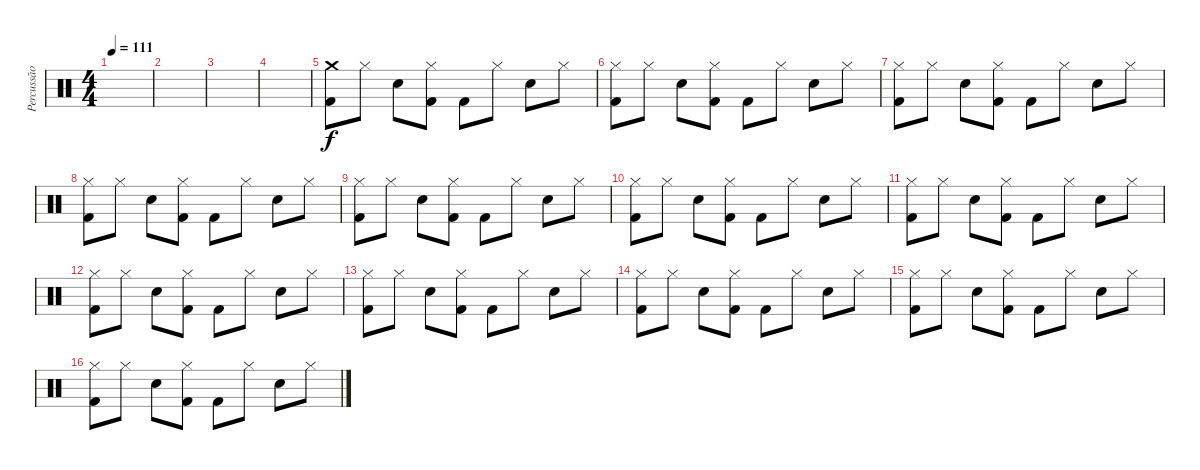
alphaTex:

\track ("Percussão" "Percussão") {instrument percussion}
\staff {score}
\articulation defaults
\ts (4 4)
\tempo 111
\clef neutral
\ks c
|
|
|
|
("Crash medium (hit)" "Kick (hit) 2").8 "Hi-Hat (closed)".8 "Electric Snare (hit)".8 ("Hi-Hat (closed)" "Kick (hit) 2").8 "Kick (hit) 2".8 "Hi-Hat (closed)".8 "Electric Snare (hit)".8 "Hi-Hat (closed)".8 |
("Hi-Hat (closed)" "Kick (hit) 2").8 "Hi-Hat (closed)".8 "Electric Snare (hit)".8 ("Hi-Hat (closed)" "Kick (hit) 2").8 "Kick (hit) 2".8 "Hi-Hat (closed)".8 "Electric Snare (hit)".8 "Hi-Hat (closed)".8 |
("Hi-Hat (closed)" "Kick (hit) 2").8 "Hi-Hat (closed)".8 "Electric Snare (hit)".8 ("Hi-Hat (closed)" "Kick (hit) 2").8 "Kick (hit) 2".8 "Hi-Hat (closed)".8 "Electric Snare (hit)".8 "Hi-Hat (closed)".8 |
("Hi-Hat (closed)" "Kick (hit) 2").8 "Hi-Hat (closed)".8 "Electric Snare (hit)".8 ("Hi-Hat (closed)" "Kick (hit) 2").8 "Kick (hit) 2".8 "Hi-Hat (closed)".8 "Electric Snare (hit)".8 "Hi-Hat (closed)".8 |
("Hi-Hat (closed)" "Kick (hit) 2").8 "Hi-Hat (closed)".8 "Electric Snare (hit)".8 ("Hi-Hat (closed)" "Kick (hit) 2").8 "Kick (hit) 2".8 "Hi-Hat (closed)".8 "Electric Snare (hit)".8 "Hi-Hat (closed)".8 |
("Hi-Hat (closed)" "Kick (hit) 2").8 "Hi-Hat (closed)".8 "Electric Snare (hit)".8 ("Hi-Hat (closed)" "Kick (hit) 2").8 "Kick (hit) 2".8 "Hi-Hat (closed)".8 "Electric Snare (hit)".8 "Hi-Hat (closed)".8 |
("Hi-Hat (closed)" "Kick (hit) 2").8 "Hi-Hat (closed)".8 "Electric Snare (hit)".8 ("Hi-Hat (closed)" "Kick (hit) 2").8 "Kick (hit) 2".8 "Hi-Hat (closed)".8 "Electric Snare (hit)".8 "Hi-Hat (closed)".8 |
("Hi-Hat (closed)" "Kick (hit) 2").8 "Hi-Hat (closed)".8 "Electric Snare (hit)".8 ("Hi-Hat (closed)" "Kick (hit) 2").8 "Kick (hit) 2".8 "Hi-Hat (closed)".8 "Electric Snare (hit)".8 "Hi-Hat (closed)".8 |
("Hi-Hat (closed)" "Kick (hit) 2").8 "Hi-Hat (closed)".8 "Electric Snare (hit)".8 ("Hi-Hat (closed)" "Kick (hit) 2").8 "Kick (hit) 2".8 "Hi-Hat (closed)".8 "Electric Snare (hit)".8 "Hi-Hat (closed)".8 |
("Hi-Hat (closed)" "Kick (hit) 2").8 "Hi-Hat (closed)".8 "Electric Snare (hit)".8 ("Hi-Hat (closed)" "Kick (hit) 2").8 "Kick (hit) 2".8 "Hi-Hat (closed)".8 "Electric Snare (hit)".8 "Hi-Hat (closed)".8 |
("Hi-Hat (closed)" "Kick (hit) 2").8 "Hi-Hat (closed)".8 "Electric Snare (hit)".8 ("Hi-Hat (closed)" "Kick (hit) 2").8 "Kick (hit) 2".8 "Hi-Hat (closed)".8 "Electric Snare (hit)".8 "Hi-Hat (closed)".8 |
("Hi-Hat (closed)" "Kick (hit) 2").8 "Hi-Hat (closed)".8 "Electric Snare (hit)".8 ("Hi-Hat (closed)" "Kick (hit) 2").8 "Kick (hit) 2".8 "Hi-Hat (closed)".8 "Electric Snare (hit)".8 "Hi-Hat (closed)".8
